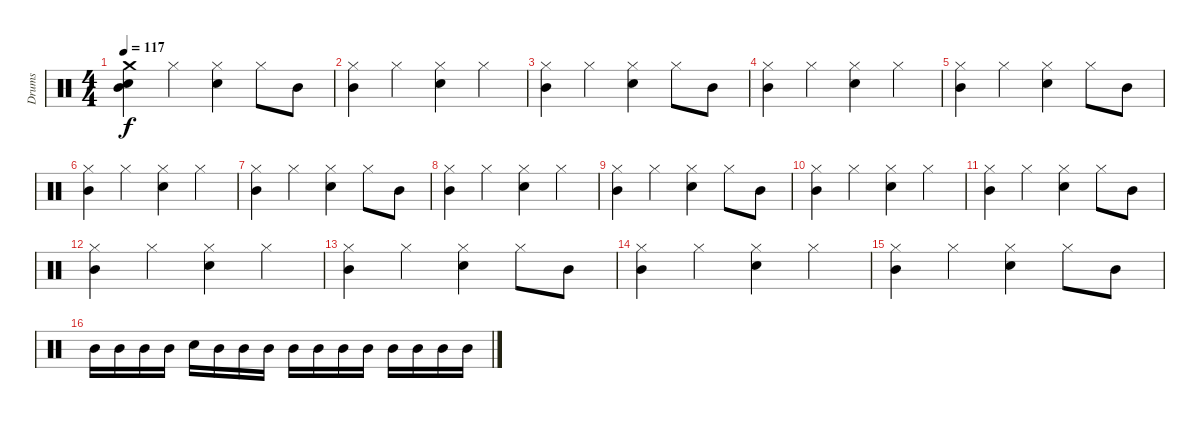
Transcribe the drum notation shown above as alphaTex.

\track ("Drums" "Drums") {instrument percussion}
\staff {score}
\articulation defaults
\ts (4 4)
\tempo 117
\clef neutral
\ks c
("Electric Snare (hit)" "Crash medium (hit)" "Mid Tom (hit)").4{dy f} "Hi-Hat (closed)".4 ("Hi-Hat (closed)" "Electric Snare (hit)").4 "Hi-Hat (closed)".8 "Mid Tom (hit)".8 |
("Hi-Hat (closed)" "Mid Tom (hit)").4 "Hi-Hat (closed)".4 ("Hi-Hat (closed)" "Electric Snare (hit)").4 "Hi-Hat (closed)".4 |
("Hi-Hat (closed)" "Mid Tom (hit)").4 "Hi-Hat (closed)".4 ("Hi-Hat (closed)" "Electric Snare (hit)").4 "Hi-Hat (closed)".8 "Mid Tom (hit)".8 |
("Hi-Hat (closed)" "Mid Tom (hit)").4 "Hi-Hat (closed)".4 ("Hi-Hat (closed)" "Electric Snare (hit)").4 "Hi-Hat (closed)".4 |
("Hi-Hat (closed)" "Mid Tom (hit)").4 "Hi-Hat (closed)".4 ("Hi-Hat (closed)" "Electric Snare (hit)").4 "Hi-Hat (closed)".8 "Mid Tom (hit)".8 |
("Hi-Hat (closed)" "Mid Tom (hit)").4 "Hi-Hat (closed)".4 ("Hi-Hat (closed)" "Electric Snare (hit)").4 "Hi-Hat (closed)".4 |
("Hi-Hat (closed)" "Mid Tom (hit)").4 "Hi-Hat (closed)".4 ("Hi-Hat (closed)" "Electric Snare (hit)").4 "Hi-Hat (closed)".8 "Mid Tom (hit)".8 |
("Hi-Hat (closed)" "Mid Tom (hit)").4 "Hi-Hat (closed)".4 ("Hi-Hat (closed)" "Electric Snare (hit)").4 "Hi-Hat (closed)".4 |
("Hi-Hat (closed)" "Mid Tom (hit)").4 "Hi-Hat (closed)".4 ("Hi-Hat (closed)" "Electric Snare (hit)").4 "Hi-Hat (closed)".8 "Mid Tom (hit)".8 |
("Hi-Hat (closed)" "Mid Tom (hit)").4 "Hi-Hat (closed)".4 ("Hi-Hat (closed)" "Electric Snare (hit)").4 "Hi-Hat (closed)".4 |
("Hi-Hat (closed)" "Mid Tom (hit)").4 "Hi-Hat (closed)".4 ("Hi-Hat (closed)" "Electric Snare (hit)").4 "Hi-Hat (closed)".8 "Mid Tom (hit)".8 |
("Hi-Hat (closed)" "Mid Tom (hit)").4 "Hi-Hat (closed)".4 ("Hi-Hat (closed)" "Electric Snare (hit)").4 "Hi-Hat (closed)".4 |
("Hi-Hat (closed)" "Mid Tom (hit)").4 "Hi-Hat (closed)".4 ("Hi-Hat (closed)" "Electric Snare (hit)").4 "Hi-Hat (closed)".8 "Mid Tom (hit)".8 |
("Hi-Hat (closed)" "Mid Tom (hit)").4 "Hi-Hat (closed)".4 ("Hi-Hat (closed)" "Electric Snare (hit)").4 "Hi-Hat (closed)".4 |
("Hi-Hat (closed)" "Mid Tom (hit)").4 "Hi-Hat (closed)".4 ("Hi-Hat (closed)" "Electric Snare (hit)").4 "Hi-Hat (closed)".8 "Mid Tom (hit)".8 |
"Mid Tom (hit)".16 "Mid Tom (hit)".16 "Mid Tom (hit)".16 "Mid Tom (hit)".16 "Electric Snare (hit)".16 "Mid Tom (hit)".16 "Mid Tom (hit)".16 "Mid Tom (hit)".16 "Mid Tom (hit)".16 "Mid Tom (hit)".16 "Mid Tom (hit)".16 "Mid Tom (hit)".16 "Mid Tom (hit)".16 "Mid Tom (hit)".16 "Mid Tom (hit)".16 "Mid Tom (hit)".16
